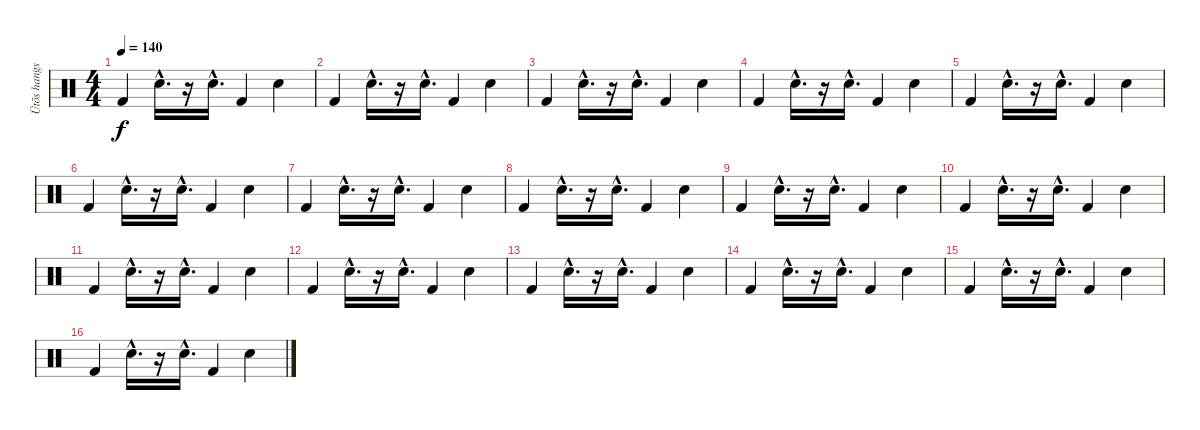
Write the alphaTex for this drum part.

\track ("Ütõs hangszer" "Ütõs hangs") {instrument percussion}
\staff {score}
\articulation defaults
\ts (4 4)
\tempo 140
\clef neutral
\ks c "Kick (hit) 2".4{dy f} "Snare (hit) 2"{hac}.16{d}
r.16 "Snare (hit) 2"{hac}.16{d} "Kick (hit) 2".4 "Snare (hit) 2".4 |
"Kick (hit) 2".4 "Snare (hit) 2"{hac}.16{d} r.16 "Snare (hit) 2"{hac}.16{d} "Kick (hit) 2".4 "Snare (hit) 2".4 |
"Kick (hit) 2".4 "Snare (hit) 2"{hac}.16{d} r.16 "Snare (hit) 2"{hac}.16{d} "Kick (hit) 2".4 "Snare (hit) 2".4 |
"Kick (hit) 2".4 "Snare (hit) 2"{hac}.16{d} r.16 "Snare (hit) 2"{hac}.16{d} "Kick (hit) 2".4 "Snare (hit) 2".4 |
"Kick (hit) 2".4 "Snare (hit) 2"{hac}.16{d} r.16 "Snare (hit) 2"{hac}.16{d} "Kick (hit) 2".4 "Snare (hit) 2".4 |
"Kick (hit) 2".4 "Snare (hit) 2"{hac}.16{d} r.16 "Snare (hit) 2"{hac}.16{d} "Kick (hit) 2".4 "Snare (hit) 2".4 |
"Kick (hit) 2".4 "Snare (hit) 2"{hac}.16{d} r.16 "Snare (hit) 2"{hac}.16{d} "Kick (hit) 2".4 "Snare (hit) 2".4 |
"Kick (hit) 2".4 "Snare (hit) 2"{hac}.16{d} r.16 "Snare (hit) 2"{hac}.16{d} "Kick (hit) 2".4 "Snare (hit) 2".4 |
"Kick (hit) 2".4 "Snare (hit) 2"{hac}.16{d} r.16 "Snare (hit) 2"{hac}.16{d} "Kick (hit) 2".4 "Snare (hit) 2".4 |
"Kick (hit) 2".4 "Snare (hit) 2"{hac}.16{d} r.16 "Snare (hit) 2"{hac}.16{d} "Kick (hit) 2".4 "Snare (hit) 2".4 |
"Kick (hit) 2".4 "Snare (hit) 2"{hac}.16{d} r.16 "Snare (hit) 2"{hac}.16{d} "Kick (hit) 2".4 "Snare (hit) 2".4 |
"Kick (hit) 2".4 "Snare (hit) 2"{hac}.16{d} r.16 "Snare (hit) 2"{hac}.16{d} "Kick (hit) 2".4 "Snare (hit) 2".4 |
"Kick (hit) 2".4 "Snare (hit) 2"{hac}.16{d} r.16 "Snare (hit) 2"{hac}.16{d} "Kick (hit) 2".4 "Snare (hit) 2".4 |
"Kick (hit) 2".4 "Snare (hit) 2"{hac}.16{d} r.16 "Snare (hit) 2"{hac}.16{d} "Kick (hit) 2".4 "Snare (hit) 2".4 |
"Kick (hit) 2".4 "Snare (hit) 2"{hac}.16{d} r.16 "Snare (hit) 2"{hac}.16{d} "Kick (hit) 2".4 "Snare (hit) 2".4 |
"Kick (hit) 2".4 "Snare (hit) 2"{hac}.16{d} r.16 "Snare (hit) 2"{hac}.16{d} "Kick (hit) 2".4 "Snare (hit) 2".4
